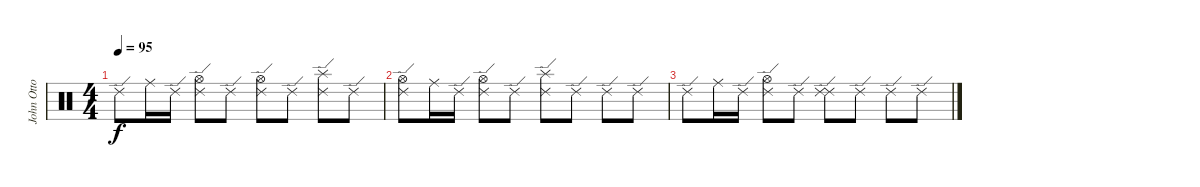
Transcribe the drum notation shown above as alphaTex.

\track ("John Otto (Drums)" "John Otto ") {instrument percussion}
\staff {score}
\articulation defaults
\ts (4 4)
\tempo 95
\clef neutral
\ks c "Ride (edge) 2".8{dy f} "Ride (middle)".16 "Ride (edge) 2".16
("Hi-Hat (open)" "Ride (edge) 2").8 "Ride (edge) 2".8 ("Hi-Hat (open)" "Ride (edge) 2").8 "Ride (edge) 2".8 ("Splash (hit)" "Ride (edge) 2").8 "Ride (edge) 2".8 |
("Hi-Hat (open)" "Ride (edge) 2").8 "Ride (middle)".16 "Ride (edge) 2".16 ("Hi-Hat (open)" "Ride (edge) 2").8 "Ride (edge) 2".8 ("Splash (hit)" "Ride (edge) 2").8 "Ride (edge) 2".8 "Ride (edge) 2".8 "Ride (edge) 2".8 |
"Ride (edge) 2".8 "Ride (middle)".16 "Ride (edge) 2".16 ("Hi-Hat (open)" "Ride (edge) 2").8 "Ride (edge) 2".8 ("Ride (edge) 2" "Ride (edge) 2").8 "Ride (edge) 2".8 "Ride (edge) 2".8 "Ride (edge) 2".8
